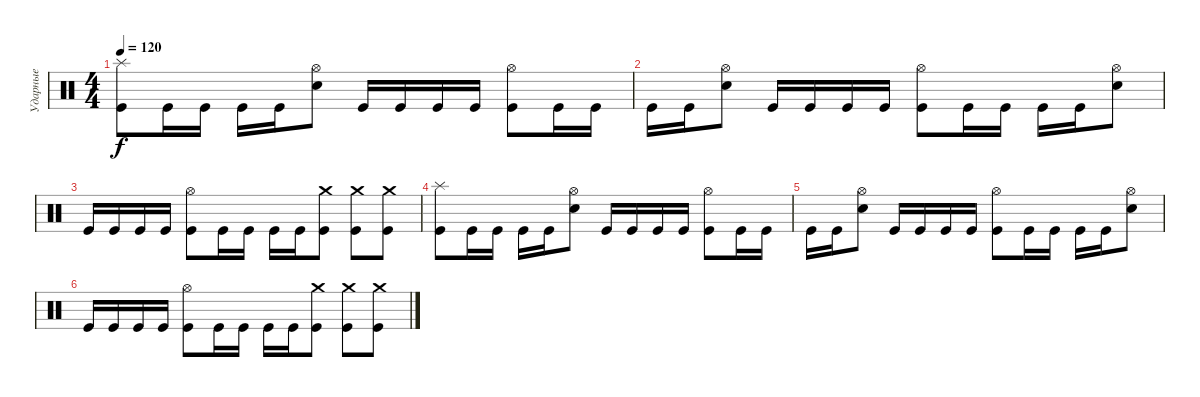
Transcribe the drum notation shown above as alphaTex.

\track ("Ударные" "Ударные") {instrument percussion}
\staff {score}
\articulation defaults
\ts (4 4)
\tempo 120
\clef neutral
\ks c
("Kick (hit)" "Splash (hit)").8{dy f} "Kick (hit)".16 "Kick (hit)".16 "Kick (hit)".16 "Kick (hit)".16 ("Snare (hit) 2" "Hi-Hat (open)").8 "Kick (hit)".16 "Kick (hit)".16 "Kick (hit)".16 "Kick (hit)".16 ("Kick (hit)" "Hi-Hat (open)").8 "Kick (hit)".16 "Kick (hit)".16 |
"Kick (hit)".16 "Kick (hit)".16 ("Snare (hit) 2" "Hi-Hat (open)").8 "Kick (hit)".16 "Kick (hit)".16 "Kick (hit)".16 "Kick (hit)".16 ("Kick (hit)" "Hi-Hat (open)").8 "Kick (hit)".16 "Kick (hit)".16 "Kick (hit)".16 "Kick (hit)".16 ("Snare (hit) 2" "Hi-Hat (open)").8 |
"Kick (hit)".16 "Kick (hit)".16 "Kick (hit)".16 "Kick (hit)".16 ("Kick (hit)" "Hi-Hat (open)").8 "Kick (hit)".16 "Kick (hit)".16 "Kick (hit)".16 "Kick (hit)".16 ("Kick (hit)" "Crash medium (hit)").8 ("Kick (hit)" "Crash medium (hit)").8 ("Kick (hit)" "Crash medium (hit)").8 |
("Kick (hit)" "Splash (hit)").8 "Kick (hit)".16 "Kick (hit)".16 "Kick (hit)".16 "Kick (hit)".16 ("Snare (hit) 2" "Hi-Hat (open)").8 "Kick (hit)".16 "Kick (hit)".16 "Kick (hit)".16 "Kick (hit)".16 ("Kick (hit)" "Hi-Hat (open)").8 "Kick (hit)".16 "Kick (hit)".16 |
"Kick (hit)".16 "Kick (hit)".16 ("Snare (hit) 2" "Hi-Hat (open)").8 "Kick (hit)".16 "Kick (hit)".16 "Kick (hit)".16 "Kick (hit)".16 ("Kick (hit)" "Hi-Hat (open)").8 "Kick (hit)".16 "Kick (hit)".16 "Kick (hit)".16 "Kick (hit)".16 ("Snare (hit) 2" "Hi-Hat (open)").8 |
"Kick (hit)".16 "Kick (hit)".16 "Kick (hit)".16 "Kick (hit)".16 ("Kick (hit)" "Hi-Hat (open)").8 "Kick (hit)".16 "Kick (hit)".16 "Kick (hit)".16 "Kick (hit)".16 ("Kick (hit)" "Crash medium (hit)").8 ("Kick (hit)" "Crash medium (hit)").8 ("Kick (hit)" "Crash medium (hit)").8
